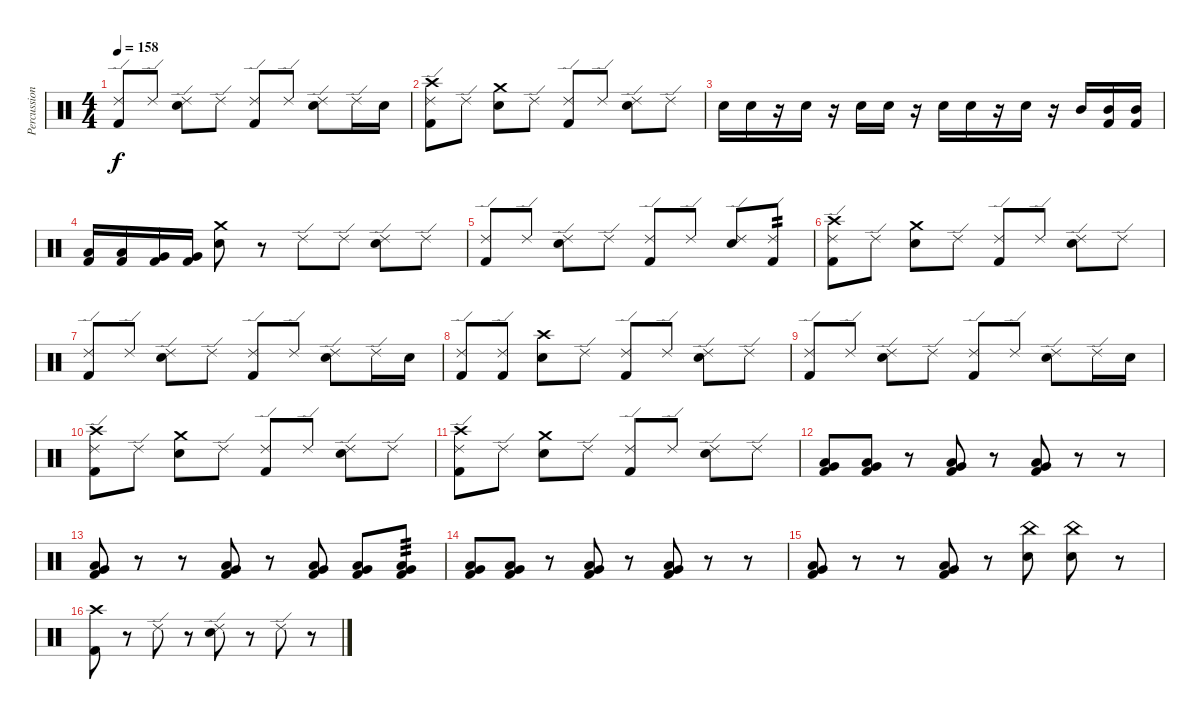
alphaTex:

\track ("Percussion" "Percussion") {instrument percussion}
\staff {score}
\articulation defaults
\ts (4 4)
\tempo 158
\clef neutral
\ks c
("Ride (edge) 2" "Kick (hit) 2").8{dy f} "Ride (edge) 2".8 ("Ride (edge) 2" "Electric Snare (hit)").8 "Ride (edge) 2".8 ("Ride (edge) 2" "Kick (hit) 2").8 "Ride (edge) 2".8 ("Ride (edge) 2" "Electric Snare (hit)").8 "Ride (edge) 2".16 "Electric Snare (hit)".16 |
("Ride (edge) 2" "Crash high (hit)" "Kick (hit) 2").8 "Ride (edge) 2".8 ("Crash medium (hit)" "Electric Snare (hit)").8 "Ride (edge) 2".8 ("Ride (edge) 2" "Kick (hit) 2").8 "Ride (edge) 2".8 ("Ride (edge) 2" "Electric Snare (hit)").8 "Ride (edge) 2".8 |
"Electric Snare (hit)".16 "Electric Snare (hit)".16 r.16 "Electric Snare (hit)".16 r.16 "Electric Snare (hit)".16 "Electric Snare (hit)".16 r.16 "Electric Snare (hit)".16 "Electric Snare (hit)".16 r.16 "Electric Snare (hit)".16 r.16 "Mid Tom (hit)".16 ("Mid Tom (hit)" "Kick (hit) 2").16 ("Mid Tom (hit)" "Kick (hit) 2").16 |
("Low Tom (hit)" "Kick (hit) 2").16 ("Low Tom (hit)" "Kick (hit) 2").16 ("Very Low Tom (hit)" "Kick (hit) 2").16 ("Very Low Tom (hit)" "Kick (hit) 2").16 ("Crash medium (hit)" "Electric Snare (hit)").8 r.8 "Ride (edge) 2".8 "Ride (edge) 2".8 ("Ride (edge) 2" "Electric Snare (hit)").8 "Ride (edge) 2".8 |
("Ride (edge) 2" "Kick (hit) 2").8 "Ride (edge) 2".8 ("Ride (edge) 2" "Electric Snare (hit)").8 "Ride (edge) 2".8 ("Ride (edge) 2" "Kick (hit) 2").8 "Ride (edge) 2".8 ("Ride (edge) 2" "Electric Snare (hit)").8 ("Ride (edge) 2" "Kick (hit) 2").8{tp 2} |
("Ride (edge) 2" "Crash high (hit)" "Kick (hit) 2").8 "Ride (edge) 2".8 ("Crash medium (hit)" "Electric Snare (hit)").8 "Ride (edge) 2".8 ("Ride (edge) 2" "Kick (hit) 2").8 "Ride (edge) 2".8 ("Ride (edge) 2" "Electric Snare (hit)").8 "Ride (edge) 2".8 |
("Ride (edge) 2" "Kick (hit) 2").8 "Ride (edge) 2".8 ("Ride (edge) 2" "Electric Snare (hit)").8 "Ride (edge) 2".8 ("Ride (edge) 2" "Kick (hit) 2").8 "Ride (edge) 2".8 ("Ride (edge) 2" "Electric Snare (hit)").8 "Ride (edge) 2".16 "Electric Snare (hit)".16 |
("Ride (edge) 2" "Kick (hit) 2").8 ("Ride (edge) 2" "Kick (hit) 2").8 ("Crash high (hit)" "Electric Snare (hit)").8 "Ride (edge) 2".8 ("Ride (edge) 2" "Kick (hit) 2").8 "Ride (edge) 2".8 ("Ride (edge) 2" "Electric Snare (hit)").8 "Ride (edge) 2".8 |
("Ride (edge) 2" "Kick (hit) 2").8 "Ride (edge) 2".8 ("Ride (edge) 2" "Electric Snare (hit)").8 "Ride (edge) 2".8 ("Ride (edge) 2" "Kick (hit) 2").8 "Ride (edge) 2".8 ("Ride (edge) 2" "Electric Snare (hit)").8 "Ride (edge) 2".16 "Electric Snare (hit)".16 |
("Ride (edge) 2" "Crash high (hit)" "Kick (hit) 2").8 "Ride (edge) 2".8 ("Crash medium (hit)" "Electric Snare (hit)").8 "Ride (edge) 2".8 ("Ride (edge) 2" "Kick (hit) 2").8 "Ride (edge) 2".8 ("Ride (edge) 2" "Electric Snare (hit)").8 "Ride (edge) 2".8 |
("Ride (edge) 2" "Crash high (hit)" "Kick (hit) 2").8 "Ride (edge) 2".8 ("Crash medium (hit)" "Electric Snare (hit)").8 "Ride (edge) 2".8 ("Ride (edge) 2" "Kick (hit) 2").8 "Ride (edge) 2".8 ("Ride (edge) 2" "Electric Snare (hit)").8 "Ride (edge) 2".8 |
("Low Tom (hit)" "Very Low Tom (hit)" "Kick (hit) 2").8 ("Low Tom (hit)" "Very Low Tom (hit)" "Kick (hit) 2").8 r.8 ("Low Tom (hit)" "Very Low Tom (hit)" "Kick (hit) 2").8 r.8 ("Low Tom (hit)" "Very Low Tom (hit)" "Kick (hit) 2").8 r.8 r.8 |
("Low Tom (hit)" "Very Low Tom (hit)" "Kick (hit) 2").8 r.8 r.8 ("Low Tom (hit)" "Very Low Tom (hit)" "Kick (hit) 2").8 r.8 ("Low Tom (hit)" "Very Low Tom (hit)" "Kick (hit) 2").8 ("Low Tom (hit)" "Very Low Tom (hit)" "Kick (hit) 2").8 ("Low Tom (hit)" "Very Low Tom (hit)" "Kick (hit) 2").8{tp 3} |
("Low Tom (hit)" "Very Low Tom (hit)" "Kick (hit) 2").8 ("Low Tom (hit)" "Very Low Tom (hit)" "Kick (hit) 2").8 r.8 ("Low Tom (hit)" "Very Low Tom (hit)" "Kick (hit) 2").8 r.8 ("Low Tom (hit)" "Very Low Tom (hit)" "Kick (hit) 2").8 r.8 r.8 |
("Low Tom (hit)" "Very Low Tom (hit)" "Kick (hit) 2").8 r.8 r.8 ("Low Tom (hit)" "Very Low Tom (hit)" "Kick (hit) 2").8 r.8 ("China (hit)" "Electric Snare (hit)").8 ("China (hit)" "Electric Snare (hit)").8 r.8 |
("Crash high (hit)" "Kick (hit) 2").8 r.8 "Ride (edge) 2".8 r.8 ("Ride (edge) 2" "Electric Snare (hit)").8 r.8 "Ride (edge) 2".8 r.8
